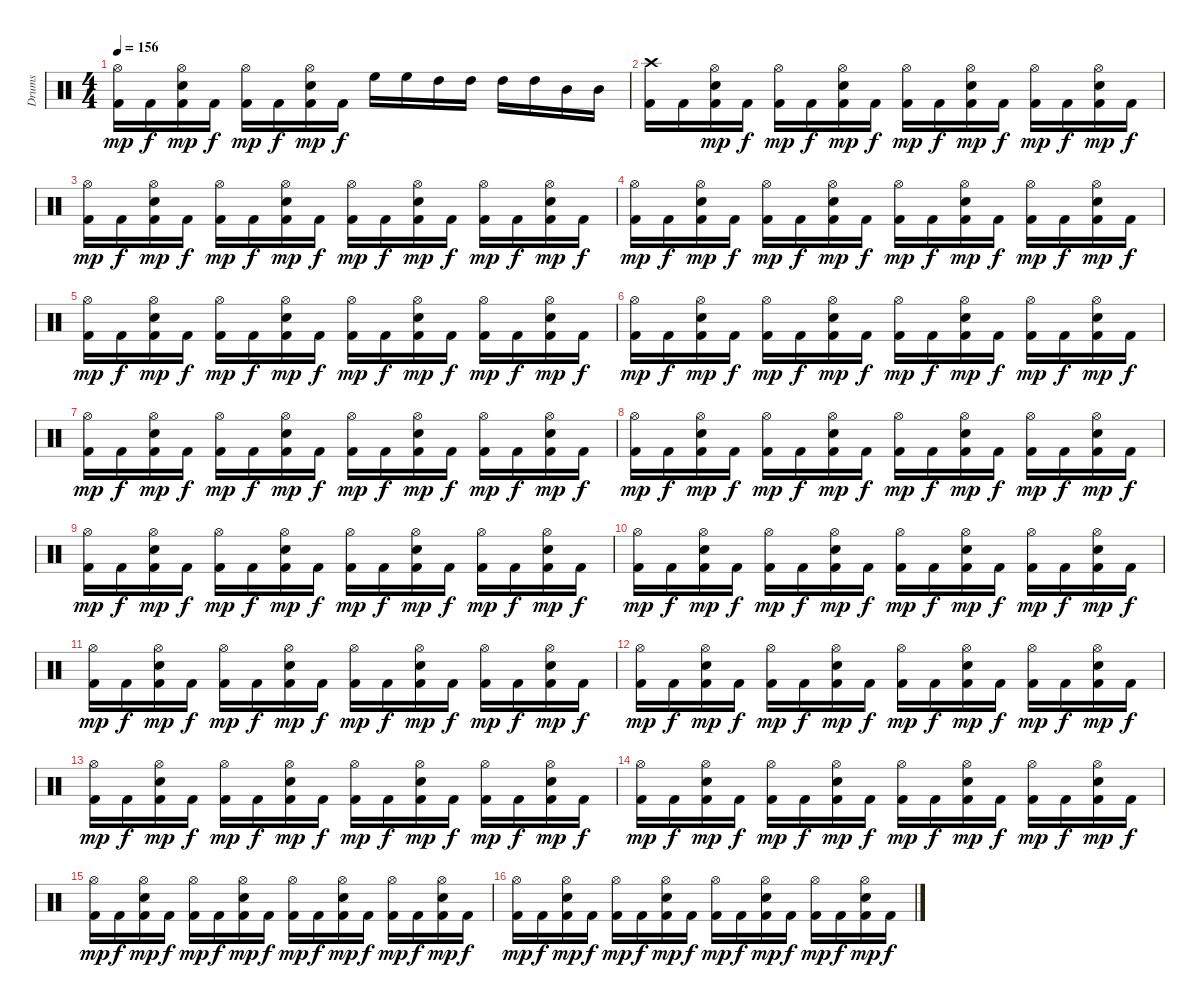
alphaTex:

\track ("Drums" "Drums") {instrument percussion}
\staff {score}
\articulation defaults
\ts (4 4)
\tempo 156
\clef neutral
\ks c
("Kick (hit) 2" "Hi-Hat (open)").16{dy mp} "Kick (hit) 2".16{dy f} ("Snare (hit) 2" "Kick (hit) 2" "Hi-Hat (open)").16{dy mp} "Kick (hit) 2".16{dy f} ("Kick (hit) 2" "Hi-Hat (open)").16{dy mp} "Kick (hit) 2".16{dy f} ("Snare (hit) 2" "Kick (hit) 2" "Hi-Hat (open)").16{dy mp} "Kick (hit) 2".16{dy f} "High Floor Tom (hit)".16 "High Floor Tom (hit)".16 "High Tom (hit)".16 "High Tom (hit)".16 "High Tom (hit)".16 "High Tom (hit)".16 "Mid Tom (hit)".16 "Mid Tom (hit)".16 |
("Kick (hit) 2" "Crash high (hit)").16 "Kick (hit) 2".16 ("Snare (hit) 2" "Kick (hit) 2" "Hi-Hat (open)").16{dy mp} "Kick (hit) 2".16{dy f} ("Kick (hit) 2" "Hi-Hat (open)").16{dy mp} "Kick (hit) 2".16{dy f} ("Snare (hit) 2" "Kick (hit) 2" "Hi-Hat (open)").16{dy mp} "Kick (hit) 2".16{dy f} ("Kick (hit) 2" "Hi-Hat (open)").16{dy mp} "Kick (hit) 2".16{dy f} ("Snare (hit) 2" "Kick (hit) 2" "Hi-Hat (open)").16{dy mp} "Kick (hit) 2".16{dy f} ("Kick (hit) 2" "Hi-Hat (open)").16{dy mp} "Kick (hit) 2".16{dy f} ("Snare (hit) 2" "Kick (hit) 2" "Hi-Hat (open)").16{dy mp} "Kick (hit) 2".16{dy f} |
("Kick (hit) 2" "Hi-Hat (open)").16{dy mp} "Kick (hit) 2".16{dy f} ("Snare (hit) 2" "Kick (hit) 2" "Hi-Hat (open)").16{dy mp} "Kick (hit) 2".16{dy f} ("Kick (hit) 2" "Hi-Hat (open)").16{dy mp} "Kick (hit) 2".16{dy f} ("Snare (hit) 2" "Kick (hit) 2" "Hi-Hat (open)").16{dy mp} "Kick (hit) 2".16{dy f} ("Kick (hit) 2" "Hi-Hat (open)").16{dy mp} "Kick (hit) 2".16{dy f} ("Snare (hit) 2" "Kick (hit) 2" "Hi-Hat (open)").16{dy mp} "Kick (hit) 2".16{dy f} ("Kick (hit) 2" "Hi-Hat (open)").16{dy mp} "Kick (hit) 2".16{dy f} ("Snare (hit) 2" "Kick (hit) 2" "Hi-Hat (open)").16{dy mp} "Kick (hit) 2".16{dy f} |
("Kick (hit) 2" "Hi-Hat (open)").16{dy mp} "Kick (hit) 2".16{dy f} ("Snare (hit) 2" "Kick (hit) 2" "Hi-Hat (open)").16{dy mp} "Kick (hit) 2".16{dy f} ("Kick (hit) 2" "Hi-Hat (open)").16{dy mp} "Kick (hit) 2".16{dy f} ("Snare (hit) 2" "Kick (hit) 2" "Hi-Hat (open)").16{dy mp} "Kick (hit) 2".16{dy f} ("Kick (hit) 2" "Hi-Hat (open)").16{dy mp} "Kick (hit) 2".16{dy f} ("Snare (hit) 2" "Kick (hit) 2" "Hi-Hat (open)").16{dy mp} "Kick (hit) 2".16{dy f} ("Kick (hit) 2" "Hi-Hat (open)").16{dy mp} "Kick (hit) 2".16{dy f} ("Snare (hit) 2" "Kick (hit) 2" "Hi-Hat (open)").16{dy mp} "Kick (hit) 2".16{dy f} |
("Kick (hit) 2" "Hi-Hat (open)").16{dy mp} "Kick (hit) 2".16{dy f} ("Snare (hit) 2" "Kick (hit) 2" "Hi-Hat (open)").16{dy mp} "Kick (hit) 2".16{dy f} ("Kick (hit) 2" "Hi-Hat (open)").16{dy mp} "Kick (hit) 2".16{dy f} ("Snare (hit) 2" "Kick (hit) 2" "Hi-Hat (open)").16{dy mp} "Kick (hit) 2".16{dy f} ("Kick (hit) 2" "Hi-Hat (open)").16{dy mp} "Kick (hit) 2".16{dy f} ("Snare (hit) 2" "Kick (hit) 2" "Hi-Hat (open)").16{dy mp} "Kick (hit) 2".16{dy f} ("Kick (hit) 2" "Hi-Hat (open)").16{dy mp} "Kick (hit) 2".16{dy f} ("Snare (hit) 2" "Kick (hit) 2" "Hi-Hat (open)").16{dy mp} "Kick (hit) 2".16{dy f} |
("Kick (hit) 2" "Hi-Hat (open)").16{dy mp} "Kick (hit) 2".16{dy f} ("Snare (hit) 2" "Kick (hit) 2" "Hi-Hat (open)").16{dy mp} "Kick (hit) 2".16{dy f} ("Kick (hit) 2" "Hi-Hat (open)").16{dy mp} "Kick (hit) 2".16{dy f} ("Snare (hit) 2" "Kick (hit) 2" "Hi-Hat (open)").16{dy mp} "Kick (hit) 2".16{dy f} ("Kick (hit) 2" "Hi-Hat (open)").16{dy mp} "Kick (hit) 2".16{dy f} ("Snare (hit) 2" "Kick (hit) 2" "Hi-Hat (open)").16{dy mp} "Kick (hit) 2".16{dy f} ("Kick (hit) 2" "Hi-Hat (open)").16{dy mp} "Kick (hit) 2".16{dy f} ("Snare (hit) 2" "Kick (hit) 2" "Hi-Hat (open)").16{dy mp} "Kick (hit) 2".16{dy f} |
("Kick (hit) 2" "Hi-Hat (open)").16{dy mp} "Kick (hit) 2".16{dy f} ("Snare (hit) 2" "Kick (hit) 2" "Hi-Hat (open)").16{dy mp} "Kick (hit) 2".16{dy f} ("Kick (hit) 2" "Hi-Hat (open)").16{dy mp} "Kick (hit) 2".16{dy f} ("Snare (hit) 2" "Kick (hit) 2" "Hi-Hat (open)").16{dy mp} "Kick (hit) 2".16{dy f} ("Kick (hit) 2" "Hi-Hat (open)").16{dy mp} "Kick (hit) 2".16{dy f} ("Snare (hit) 2" "Kick (hit) 2" "Hi-Hat (open)").16{dy mp} "Kick (hit) 2".16{dy f} ("Kick (hit) 2" "Hi-Hat (open)").16{dy mp} "Kick (hit) 2".16{dy f} ("Snare (hit) 2" "Kick (hit) 2" "Hi-Hat (open)").16{dy mp} "Kick (hit) 2".16{dy f} |
("Kick (hit) 2" "Hi-Hat (open)").16{dy mp} "Kick (hit) 2".16{dy f} ("Snare (hit) 2" "Kick (hit) 2" "Hi-Hat (open)").16{dy mp} "Kick (hit) 2".16{dy f} ("Kick (hit) 2" "Hi-Hat (open)").16{dy mp} "Kick (hit) 2".16{dy f} ("Snare (hit) 2" "Kick (hit) 2" "Hi-Hat (open)").16{dy mp} "Kick (hit) 2".16{dy f} ("Kick (hit) 2" "Hi-Hat (open)").16{dy mp} "Kick (hit) 2".16{dy f} ("Snare (hit) 2" "Kick (hit) 2" "Hi-Hat (open)").16{dy mp} "Kick (hit) 2".16{dy f} ("Kick (hit) 2" "Hi-Hat (open)").16{dy mp} "Kick (hit) 2".16{dy f} ("Snare (hit) 2" "Kick (hit) 2" "Hi-Hat (open)").16{dy mp} "Kick (hit) 2".16{dy f} |
("Kick (hit) 2" "Hi-Hat (open)").16{dy mp} "Kick (hit) 2".16{dy f} ("Snare (hit) 2" "Kick (hit) 2" "Hi-Hat (open)").16{dy mp} "Kick (hit) 2".16{dy f} ("Kick (hit) 2" "Hi-Hat (open)").16{dy mp} "Kick (hit) 2".16{dy f} ("Snare (hit) 2" "Kick (hit) 2" "Hi-Hat (open)").16{dy mp} "Kick (hit) 2".16{dy f} ("Kick (hit) 2" "Hi-Hat (open)").16{dy mp} "Kick (hit) 2".16{dy f} ("Snare (hit) 2" "Kick (hit) 2" "Hi-Hat (open)").16{dy mp} "Kick (hit) 2".16{dy f} ("Kick (hit) 2" "Hi-Hat (open)").16{dy mp} "Kick (hit) 2".16{dy f} ("Snare (hit) 2" "Kick (hit) 2" "Hi-Hat (open)").16{dy mp} "Kick (hit) 2".16{dy f} |
("Kick (hit) 2" "Hi-Hat (open)").16{dy mp} "Kick (hit) 2".16{dy f} ("Snare (hit) 2" "Kick (hit) 2" "Hi-Hat (open)").16{dy mp} "Kick (hit) 2".16{dy f} ("Kick (hit) 2" "Hi-Hat (open)").16{dy mp} "Kick (hit) 2".16{dy f} ("Snare (hit) 2" "Kick (hit) 2" "Hi-Hat (open)").16{dy mp} "Kick (hit) 2".16{dy f} ("Kick (hit) 2" "Hi-Hat (open)").16{dy mp} "Kick (hit) 2".16{dy f} ("Snare (hit) 2" "Kick (hit) 2" "Hi-Hat (open)").16{dy mp} "Kick (hit) 2".16{dy f} ("Kick (hit) 2" "Hi-Hat (open)").16{dy mp} "Kick (hit) 2".16{dy f} ("Snare (hit) 2" "Kick (hit) 2" "Hi-Hat (open)").16{dy mp} "Kick (hit) 2".16{dy f} |
("Kick (hit) 2" "Hi-Hat (open)").16{dy mp} "Kick (hit) 2".16{dy f} ("Snare (hit) 2" "Kick (hit) 2" "Hi-Hat (open)").16{dy mp} "Kick (hit) 2".16{dy f} ("Kick (hit) 2" "Hi-Hat (open)").16{dy mp} "Kick (hit) 2".16{dy f} ("Snare (hit) 2" "Kick (hit) 2" "Hi-Hat (open)").16{dy mp} "Kick (hit) 2".16{dy f} ("Kick (hit) 2" "Hi-Hat (open)").16{dy mp} "Kick (hit) 2".16{dy f} ("Snare (hit) 2" "Kick (hit) 2" "Hi-Hat (open)").16{dy mp} "Kick (hit) 2".16{dy f} ("Kick (hit) 2" "Hi-Hat (open)").16{dy mp} "Kick (hit) 2".16{dy f} ("Snare (hit) 2" "Kick (hit) 2" "Hi-Hat (open)").16{dy mp} "Kick (hit) 2".16{dy f} |
("Kick (hit) 2" "Hi-Hat (open)").16{dy mp} "Kick (hit) 2".16{dy f} ("Snare (hit) 2" "Kick (hit) 2" "Hi-Hat (open)").16{dy mp} "Kick (hit) 2".16{dy f} ("Kick (hit) 2" "Hi-Hat (open)").16{dy mp} "Kick (hit) 2".16{dy f} ("Snare (hit) 2" "Kick (hit) 2" "Hi-Hat (open)").16{dy mp} "Kick (hit) 2".16{dy f} ("Kick (hit) 2" "Hi-Hat (open)").16{dy mp} "Kick (hit) 2".16{dy f} ("Snare (hit) 2" "Kick (hit) 2" "Hi-Hat (open)").16{dy mp} "Kick (hit) 2".16{dy f} ("Kick (hit) 2" "Hi-Hat (open)").16{dy mp} "Kick (hit) 2".16{dy f} ("Snare (hit) 2" "Kick (hit) 2" "Hi-Hat (open)").16{dy mp} "Kick (hit) 2".16{dy f} |
("Kick (hit) 2" "Hi-Hat (open)").16{dy mp} "Kick (hit) 2".16{dy f} ("Snare (hit) 2" "Kick (hit) 2" "Hi-Hat (open)").16{dy mp} "Kick (hit) 2".16{dy f} ("Kick (hit) 2" "Hi-Hat (open)").16{dy mp} "Kick (hit) 2".16{dy f} ("Snare (hit) 2" "Kick (hit) 2" "Hi-Hat (open)").16{dy mp} "Kick (hit) 2".16{dy f} ("Kick (hit) 2" "Hi-Hat (open)").16{dy mp} "Kick (hit) 2".16{dy f} ("Snare (hit) 2" "Kick (hit) 2" "Hi-Hat (open)").16{dy mp} "Kick (hit) 2".16{dy f} ("Kick (hit) 2" "Hi-Hat (open)").16{dy mp} "Kick (hit) 2".16{dy f} ("Snare (hit) 2" "Kick (hit) 2" "Hi-Hat (open)").16{dy mp} "Kick (hit) 2".16{dy f} |
("Kick (hit) 2" "Hi-Hat (open)").16{dy mp} "Kick (hit) 2".16{dy f} ("Snare (hit) 2" "Kick (hit) 2" "Hi-Hat (open)").16{dy mp} "Kick (hit) 2".16{dy f} ("Kick (hit) 2" "Hi-Hat (open)").16{dy mp} "Kick (hit) 2".16{dy f} ("Snare (hit) 2" "Kick (hit) 2" "Hi-Hat (open)").16{dy mp} "Kick (hit) 2".16{dy f} ("Kick (hit) 2" "Hi-Hat (open)").16{dy mp} "Kick (hit) 2".16{dy f} ("Snare (hit) 2" "Kick (hit) 2" "Hi-Hat (open)").16{dy mp} "Kick (hit) 2".16{dy f} ("Kick (hit) 2" "Hi-Hat (open)").16{dy mp} "Kick (hit) 2".16{dy f} ("Snare (hit) 2" "Kick (hit) 2" "Hi-Hat (open)").16{dy mp} "Kick (hit) 2".16{dy f} |
("Kick (hit) 2" "Hi-Hat (open)").16{dy mp} "Kick (hit) 2".16{dy f} ("Snare (hit) 2" "Kick (hit) 2" "Hi-Hat (open)").16{dy mp} "Kick (hit) 2".16{dy f} ("Kick (hit) 2" "Hi-Hat (open)").16{dy mp} "Kick (hit) 2".16{dy f} ("Snare (hit) 2" "Kick (hit) 2" "Hi-Hat (open)").16{dy mp} "Kick (hit) 2".16{dy f} ("Kick (hit) 2" "Hi-Hat (open)").16{dy mp} "Kick (hit) 2".16{dy f} ("Snare (hit) 2" "Kick (hit) 2" "Hi-Hat (open)").16{dy mp} "Kick (hit) 2".16{dy f} ("Kick (hit) 2" "Hi-Hat (open)").16{dy mp} "Kick (hit) 2".16{dy f} ("Snare (hit) 2" "Kick (hit) 2" "Hi-Hat (open)").16{dy mp} "Kick (hit) 2".16{dy f} |
("Kick (hit) 2" "Hi-Hat (open)").16{dy mp} "Kick (hit) 2".16{dy f} ("Snare (hit) 2" "Kick (hit) 2" "Hi-Hat (open)").16{dy mp} "Kick (hit) 2".16{dy f} ("Kick (hit) 2" "Hi-Hat (open)").16{dy mp} "Kick (hit) 2".16{dy f} ("Snare (hit) 2" "Kick (hit) 2" "Hi-Hat (open)").16{dy mp} "Kick (hit) 2".16{dy f} ("Kick (hit) 2" "Hi-Hat (open)").16{dy mp} "Kick (hit) 2".16{dy f} ("Snare (hit) 2" "Kick (hit) 2" "Hi-Hat (open)").16{dy mp} "Kick (hit) 2".16{dy f} ("Kick (hit) 2" "Hi-Hat (open)").16{dy mp} "Kick (hit) 2".16{dy f} ("Snare (hit) 2" "Kick (hit) 2" "Hi-Hat (open)").16{dy mp} "Kick (hit) 2".16{dy f}
